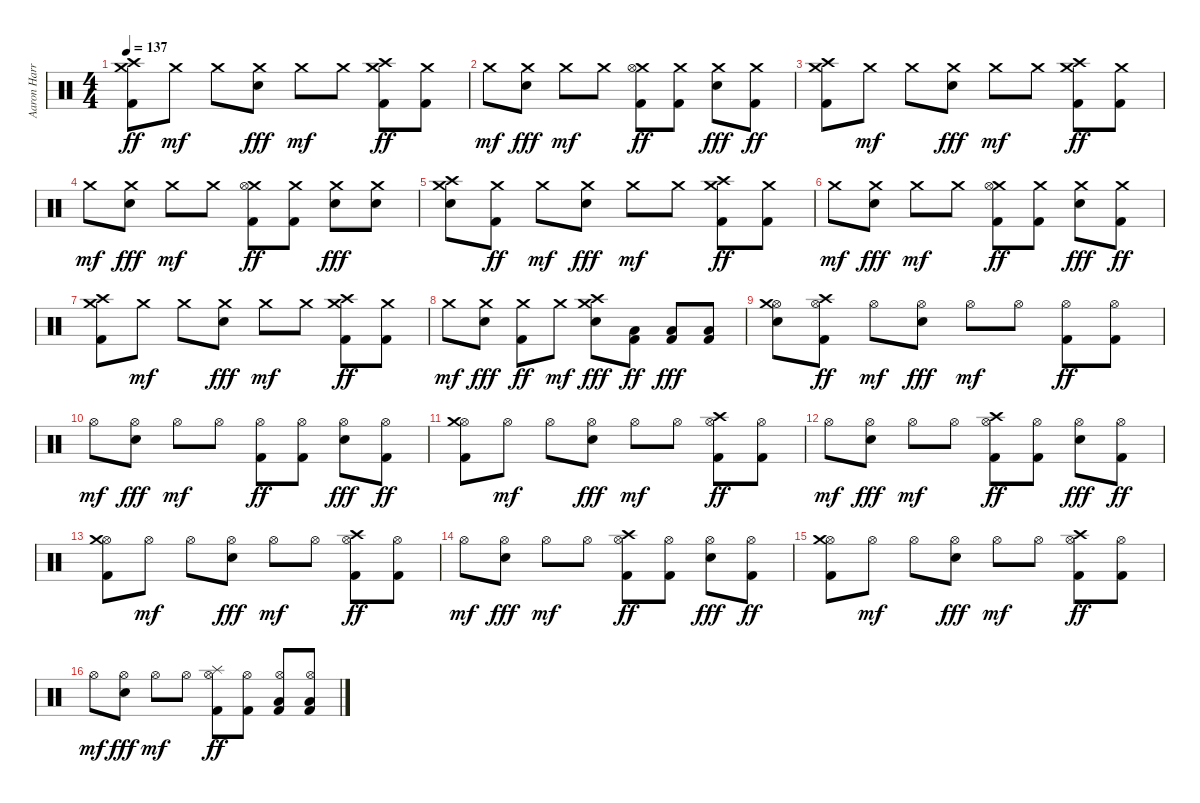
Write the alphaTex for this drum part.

\track ("Aaron Harris" "Aaron Harr") {instrument percussion}
\staff {score}
\articulation defaults
\ts (4 4)
\tempo 137
\clef neutral
\ks c
("Crash medium (hit)" "Crash high (hit)" "Kick (hit) 2").8{dy ff} "Crash medium (hit)".8{dy mf} "Crash medium (hit)".8 ("Crash medium (hit)" "Electric Snare (hit)").8{dy fff} "Crash medium (hit)".8{dy mf} "Crash medium (hit)".8 ("Crash medium (hit)" "Crash high (hit)" "Kick (hit) 2").8{dy ff} ("Crash medium (hit)" "Kick (hit) 2").8 |
"Crash medium (hit)".8{dy mf} ("Crash medium (hit)" "Electric Snare (hit)").8{dy fff} "Crash medium (hit)".8{dy mf} "Crash medium (hit)".8 ("Crash medium (hit)" "Hi-Hat (open)" "Kick (hit) 2").8{dy ff} ("Crash medium (hit)" "Kick (hit) 2").8 ("Crash medium (hit)" "Electric Snare (hit)").8{dy fff} ("Crash medium (hit)" "Kick (hit) 2").8{dy ff} |
("Crash medium (hit)" "Crash high (hit)" "Kick (hit) 2").8 "Crash medium (hit)".8{dy mf} "Crash medium (hit)".8 ("Crash medium (hit)" "Electric Snare (hit)").8{dy fff} "Crash medium (hit)".8{dy mf} "Crash medium (hit)".8 ("Crash medium (hit)" "Crash high (hit)" "Kick (hit) 2").8{dy ff} ("Crash medium (hit)" "Kick (hit) 2").8 |
"Crash medium (hit)".8{dy mf} ("Crash medium (hit)" "Electric Snare (hit)").8{dy fff} "Crash medium (hit)".8{dy mf} "Crash medium (hit)".8 ("Crash medium (hit)" "Hi-Hat (open)" "Kick (hit) 2").8{dy ff} ("Crash medium (hit)" "Kick (hit) 2").8 ("Crash medium (hit)" "Electric Snare (hit)").8{dy fff} ("Crash medium (hit)" "Electric Snare (hit)").8 |
("Crash medium (hit)" "Crash high (hit)" "Electric Snare (hit)").8 ("Crash medium (hit)" "Kick (hit) 2").8{dy ff} "Crash medium (hit)".8{dy mf} ("Crash medium (hit)" "Electric Snare (hit)").8{dy fff} "Crash medium (hit)".8{dy mf} "Crash medium (hit)".8 ("Crash medium (hit)" "Crash high (hit)" "Kick (hit) 2").8{dy ff} ("Crash medium (hit)" "Kick (hit) 2").8 |
"Crash medium (hit)".8{dy mf} ("Crash medium (hit)" "Electric Snare (hit)").8{dy fff} "Crash medium (hit)".8{dy mf} "Crash medium (hit)".8 ("Crash medium (hit)" "Hi-Hat (open)" "Kick (hit) 2").8{dy ff} ("Crash medium (hit)" "Kick (hit) 2").8 ("Crash medium (hit)" "Electric Snare (hit)").8{dy fff} ("Crash medium (hit)" "Kick (hit) 2").8{dy ff} |
("Crash medium (hit)" "Crash high (hit)" "Kick (hit) 2").8 "Crash medium (hit)".8{dy mf} "Crash medium (hit)".8 ("Crash medium (hit)" "Electric Snare (hit)").8{dy fff} "Crash medium (hit)".8{dy mf} "Crash medium (hit)".8 ("Crash medium (hit)" "Crash high (hit)" "Kick (hit) 2").8{dy ff} ("Crash medium (hit)" "Kick (hit) 2").8 |
"Crash medium (hit)".8{dy mf} ("Crash medium (hit)" "Electric Snare (hit)").8{dy fff} ("Crash medium (hit)" "Kick (hit) 2").8{dy ff} "Crash medium (hit)".8{dy mf} ("Crash medium (hit)" "Crash high (hit)" "Electric Snare (hit)").8{dy fff} ("Low Tom (hit)" "Kick (hit) 2").8{dy ff} ("Low Tom (hit)" "Kick (hit) 2").8{dy fff} ("Low Tom (hit)" "Kick (hit) 2").8 |
("Hi-Hat (open)" "Crash medium (hit)" "Electric Snare (hit)").8 ("Hi-Hat (open)" "Crash high (hit)" "Kick (hit) 2").8{dy ff} "Hi-Hat (open)".8{dy mf} ("Hi-Hat (open)" "Electric Snare (hit)").8{dy fff} "Hi-Hat (open)".8{dy mf} "Hi-Hat (open)".8 ("Hi-Hat (open)" "Kick (hit) 2").8{dy ff} ("Hi-Hat (open)" "Kick (hit) 2").8 |
"Hi-Hat (open)".8{dy mf} ("Hi-Hat (open)" "Electric Snare (hit)").8{dy fff} "Hi-Hat (open)".8{dy mf} "Hi-Hat (open)".8 ("Hi-Hat (open)" "Kick (hit) 2").8{dy ff} ("Hi-Hat (open)" "Kick (hit) 2").8 ("Hi-Hat (open)" "Electric Snare (hit)").8{dy fff} ("Hi-Hat (open)" "Kick (hit) 2").8{dy ff} |
("Hi-Hat (open)" "Crash medium (hit)" "Kick (hit) 2").8 "Hi-Hat (open)".8{dy mf} "Hi-Hat (open)".8 ("Hi-Hat (open)" "Electric Snare (hit)").8{dy fff} "Hi-Hat (open)".8{dy mf} "Hi-Hat (open)".8 ("Hi-Hat (open)" "Crash high (hit)" "Kick (hit) 2").8{dy ff} ("Hi-Hat (open)" "Kick (hit) 2").8 |
"Hi-Hat (open)".8{dy mf} ("Hi-Hat (open)" "Electric Snare (hit)").8{dy fff} "Hi-Hat (open)".8{dy mf} "Hi-Hat (open)".8 ("Hi-Hat (open)" "Crash high (hit)" "Kick (hit) 2").8{dy ff} ("Hi-Hat (open)" "Kick (hit) 2").8 ("Hi-Hat (open)" "Electric Snare (hit)").8{dy fff} ("Hi-Hat (open)" "Kick (hit) 2").8{dy ff} |
("Hi-Hat (open)" "Crash medium (hit)" "Kick (hit) 2").8 "Hi-Hat (open)".8{dy mf} "Hi-Hat (open)".8 ("Hi-Hat (open)" "Electric Snare (hit)").8{dy fff} "Hi-Hat (open)".8{dy mf} "Hi-Hat (open)".8 ("Hi-Hat (open)" "Crash high (hit)" "Kick (hit) 2").8{dy ff} ("Hi-Hat (open)" "Kick (hit) 2").8 |
"Hi-Hat (open)".8{dy mf} ("Hi-Hat (open)" "Electric Snare (hit)").8{dy fff} "Hi-Hat (open)".8{dy mf} "Hi-Hat (open)".8 ("Hi-Hat (open)" "Crash high (hit)" "Kick (hit) 2").8{dy ff} ("Hi-Hat (open)" "Kick (hit) 2").8 ("Hi-Hat (open)" "Electric Snare (hit)").8{dy fff} ("Hi-Hat (open)" "Kick (hit) 2").8{dy ff} |
("Hi-Hat (open)" "Crash medium (hit)" "Kick (hit) 2").8 "Hi-Hat (open)".8{dy mf} "Hi-Hat (open)".8 ("Hi-Hat (open)" "Electric Snare (hit)").8{dy fff} "Hi-Hat (open)".8{dy mf} "Hi-Hat (open)".8 ("Hi-Hat (open)" "Crash high (hit)" "Kick (hit) 2").8{dy ff} ("Hi-Hat (open)" "Kick (hit) 2").8 |
"Hi-Hat (open)".8{dy mf} ("Hi-Hat (open)" "Electric Snare (hit)").8{dy fff} "Hi-Hat (open)".8{dy mf} "Hi-Hat (open)".8 ("Hi-Hat (open)" "Splash (hit)" "Kick (hit) 2").8{dy ff} ("Hi-Hat (open)" "Kick (hit) 2").8 ("Hi-Hat (open)" "Low Tom (hit)" "Kick (hit) 2").8 ("Hi-Hat (open)" "Low Tom (hit)" "Kick (hit) 2").8
